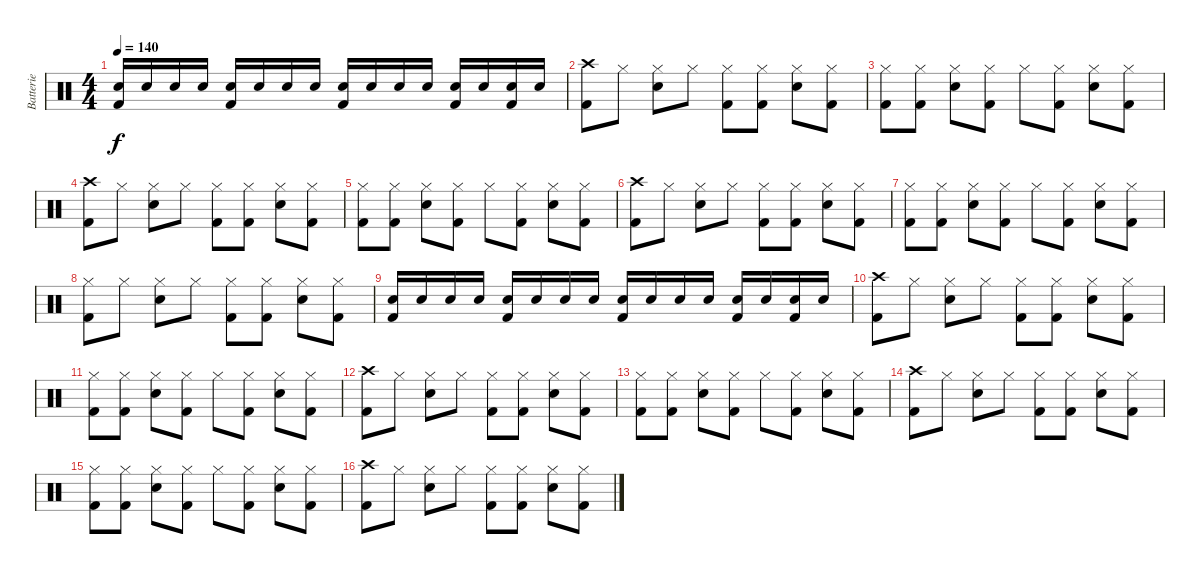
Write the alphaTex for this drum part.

\track ("Batterie" "Batterie") {instrument percussion}
\staff {score}
\articulation defaults
\ts (4 4)
\tempo 140
\clef neutral
\ks c
("Snare (hit) 2" "Kick (hit) 2").16{dy f} "Snare (hit) 2".16 "Snare (hit) 2".16 "Snare (hit) 2".16 ("Snare (hit) 2" "Kick (hit) 2").16 "Snare (hit) 2".16 "Snare (hit) 2".16 "Snare (hit) 2".16 ("Snare (hit) 2" "Kick (hit) 2").16 "Snare (hit) 2".16 "Snare (hit) 2".16 "Snare (hit) 2".16 ("Snare (hit) 2" "Kick (hit) 2").16 "Snare (hit) 2".16 ("Snare (hit) 2" "Kick (hit) 2").16 "Snare (hit) 2".16 |
("Crash high (hit)" "Kick (hit) 2").8 "Hi-Hat (closed)".8 ("Hi-Hat (closed)" "Snare (hit) 2").8 "Hi-Hat (closed)".8 ("Hi-Hat (closed)" "Kick (hit) 2").8 ("Hi-Hat (closed)" "Kick (hit) 2").8 ("Hi-Hat (closed)" "Snare (hit) 2").8 ("Hi-Hat (closed)" "Kick (hit) 2").8 |
("Hi-Hat (closed)" "Kick (hit) 2").8 ("Hi-Hat (closed)" "Kick (hit) 2").8 ("Hi-Hat (closed)" "Snare (hit) 2").8 ("Hi-Hat (closed)" "Kick (hit) 2").8 "Hi-Hat (closed)".8 ("Hi-Hat (closed)" "Kick (hit) 2").8 ("Hi-Hat (closed)" "Snare (hit) 2").8 ("Hi-Hat (closed)" "Kick (hit) 2").8 |
("Crash high (hit)" "Kick (hit) 2").8 "Hi-Hat (closed)".8 ("Hi-Hat (closed)" "Snare (hit) 2").8 "Hi-Hat (closed)".8 ("Hi-Hat (closed)" "Kick (hit) 2").8 ("Hi-Hat (closed)" "Kick (hit) 2").8 ("Hi-Hat (closed)" "Snare (hit) 2").8 ("Hi-Hat (closed)" "Kick (hit) 2").8 |
("Hi-Hat (closed)" "Kick (hit) 2").8 ("Hi-Hat (closed)" "Kick (hit) 2").8 ("Hi-Hat (closed)" "Snare (hit) 2").8 ("Hi-Hat (closed)" "Kick (hit) 2").8 "Hi-Hat (closed)".8 ("Hi-Hat (closed)" "Kick (hit) 2").8 ("Hi-Hat (closed)" "Snare (hit) 2").8 ("Hi-Hat (closed)" "Kick (hit) 2").8 |
("Crash high (hit)" "Kick (hit) 2").8 "Hi-Hat (closed)".8 ("Hi-Hat (closed)" "Snare (hit) 2").8 "Hi-Hat (closed)".8 ("Hi-Hat (closed)" "Kick (hit) 2").8 ("Hi-Hat (closed)" "Kick (hit) 2").8 ("Hi-Hat (closed)" "Snare (hit) 2").8 ("Hi-Hat (closed)" "Kick (hit) 2").8 |
("Hi-Hat (closed)" "Kick (hit) 2").8 ("Hi-Hat (closed)" "Kick (hit) 2").8 ("Hi-Hat (closed)" "Snare (hit) 2").8 ("Hi-Hat (closed)" "Kick (hit) 2").8 "Hi-Hat (closed)".8 ("Hi-Hat (closed)" "Kick (hit) 2").8 ("Hi-Hat (closed)" "Snare (hit) 2").8 ("Hi-Hat (closed)" "Kick (hit) 2").8 |
("Hi-Hat (closed)" "Kick (hit) 2").8 "Hi-Hat (closed)".8 ("Hi-Hat (closed)" "Snare (hit) 2").8 "Hi-Hat (closed)".8 ("Hi-Hat (closed)" "Kick (hit) 2").8 ("Hi-Hat (closed)" "Kick (hit) 2").8 ("Hi-Hat (closed)" "Snare (hit) 2").8 ("Hi-Hat (closed)" "Kick (hit) 2").8 |
("Snare (hit) 2" "Kick (hit) 2").16 "Snare (hit) 2".16 "Snare (hit) 2".16 "Snare (hit) 2".16 ("Snare (hit) 2" "Kick (hit) 2").16 "Snare (hit) 2".16 "Snare (hit) 2".16 "Snare (hit) 2".16 ("Snare (hit) 2" "Kick (hit) 2").16 "Snare (hit) 2".16 "Snare (hit) 2".16 "Snare (hit) 2".16 ("Snare (hit) 2" "Kick (hit) 2").16 "Snare (hit) 2".16 ("Snare (hit) 2" "Kick (hit) 2").16 "Snare (hit) 2".16 |
("Crash high (hit)" "Kick (hit) 2").8 "Hi-Hat (closed)".8 ("Hi-Hat (closed)" "Snare (hit) 2").8 "Hi-Hat (closed)".8 ("Hi-Hat (closed)" "Kick (hit) 2").8 ("Hi-Hat (closed)" "Kick (hit) 2").8 ("Hi-Hat (closed)" "Snare (hit) 2").8 ("Hi-Hat (closed)" "Kick (hit) 2").8 |
("Hi-Hat (closed)" "Kick (hit) 2").8 ("Hi-Hat (closed)" "Kick (hit) 2").8 ("Hi-Hat (closed)" "Snare (hit) 2").8 ("Hi-Hat (closed)" "Kick (hit) 2").8 "Hi-Hat (closed)".8 ("Hi-Hat (closed)" "Kick (hit) 2").8 ("Hi-Hat (closed)" "Snare (hit) 2").8 ("Hi-Hat (closed)" "Kick (hit) 2").8 |
("Crash high (hit)" "Kick (hit) 2").8 "Hi-Hat (closed)".8 ("Hi-Hat (closed)" "Snare (hit) 2").8 "Hi-Hat (closed)".8 ("Hi-Hat (closed)" "Kick (hit) 2").8 ("Hi-Hat (closed)" "Kick (hit) 2").8 ("Hi-Hat (closed)" "Snare (hit) 2").8 ("Hi-Hat (closed)" "Kick (hit) 2").8 |
("Hi-Hat (closed)" "Kick (hit) 2").8 ("Hi-Hat (closed)" "Kick (hit) 2").8 ("Hi-Hat (closed)" "Snare (hit) 2").8 ("Hi-Hat (closed)" "Kick (hit) 2").8 "Hi-Hat (closed)".8 ("Hi-Hat (closed)" "Kick (hit) 2").8 ("Hi-Hat (closed)" "Snare (hit) 2").8 ("Hi-Hat (closed)" "Kick (hit) 2").8 |
("Crash high (hit)" "Kick (hit) 2").8 "Hi-Hat (closed)".8 ("Hi-Hat (closed)" "Snare (hit) 2").8 "Hi-Hat (closed)".8 ("Hi-Hat (closed)" "Kick (hit) 2").8 ("Hi-Hat (closed)" "Kick (hit) 2").8 ("Hi-Hat (closed)" "Snare (hit) 2").8 ("Hi-Hat (closed)" "Kick (hit) 2").8 |
("Hi-Hat (closed)" "Kick (hit) 2").8 ("Hi-Hat (closed)" "Kick (hit) 2").8 ("Hi-Hat (closed)" "Snare (hit) 2").8 ("Hi-Hat (closed)" "Kick (hit) 2").8 "Hi-Hat (closed)".8 ("Hi-Hat (closed)" "Kick (hit) 2").8 ("Hi-Hat (closed)" "Snare (hit) 2").8 ("Hi-Hat (closed)" "Kick (hit) 2").8 |
("Crash high (hit)" "Kick (hit) 2").8 "Hi-Hat (closed)".8 ("Hi-Hat (closed)" "Snare (hit) 2").8 "Hi-Hat (closed)".8 ("Hi-Hat (closed)" "Kick (hit) 2").8 ("Hi-Hat (closed)" "Kick (hit) 2").8 ("Hi-Hat (closed)" "Snare (hit) 2").8 ("Hi-Hat (closed)" "Kick (hit) 2").8
